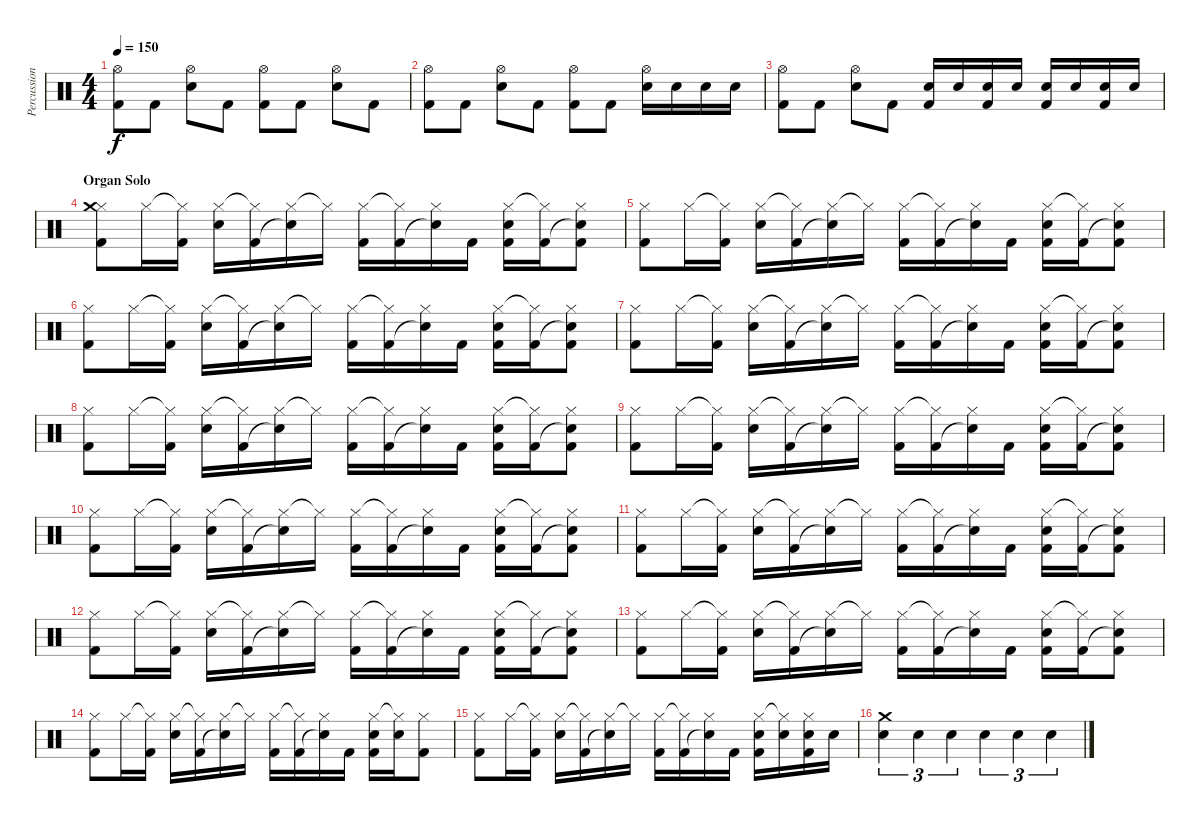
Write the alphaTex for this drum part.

\track ("Percussion" "Percussion") {instrument percussion}
\staff {score}
\articulation defaults
\ts (4 4)
\tempo 150
\clef neutral
\ks c
("Kick (hit) 2" "Hi-Hat (open)").8{dy f} "Kick (hit) 2".8 ("Electric Snare (hit)" "Hi-Hat (open)").8 "Kick (hit) 2".8 ("Kick (hit) 2" "Hi-Hat (open)").8 "Kick (hit) 2".8 ("Electric Snare (hit)" "Hi-Hat (open)").8 "Kick (hit) 2".8 |
("Kick (hit) 2" "Hi-Hat (open)").8 "Kick (hit) 2".8 ("Electric Snare (hit)" "Hi-Hat (open)").8 "Kick (hit) 2".8 ("Kick (hit) 2" "Hi-Hat (open)").8 "Kick (hit) 2".8 ("Electric Snare (hit)" "Hi-Hat (open)").16 "Electric Snare (hit)".16 "Electric Snare (hit)".16 "Electric Snare (hit)".16 |
("Kick (hit) 2" "Hi-Hat (open)").8 "Kick (hit) 2".8 ("Electric Snare (hit)" "Hi-Hat (open)").8 "Kick (hit) 2".8 ("Kick (hit) 2" "Electric Snare (hit)").16 "Electric Snare (hit)".16 ("Kick (hit) 2" "Electric Snare (hit)").16 "Electric Snare (hit)".16 ("Kick (hit) 2" "Electric Snare (hit)").16 "Electric Snare (hit)".16 ("Kick (hit) 2" "Electric Snare (hit)").16 "Electric Snare (hit)".16 |
\section ("" "Organ Solo")
("Hi-Hat (closed)" "Crash medium (hit)" "Kick (hit) 2").8 "Hi-Hat (closed)".16 ("Hi-Hat (closed)"{t} "Kick (hit) 2").16 ("Hi-Hat (closed)" "Electric Snare (hit)").16 ("Hi-Hat (closed)"{t} "Kick (hit) 2").16 ("Hi-Hat (closed)" "Snare (hit)"{t}).16 "Hi-Hat (closed)"{t}.16 ("Hi-Hat (closed)" "Kick (hit) 2").16 ("Hi-Hat (closed)"{t} "Kick (hit) 2").16 ("Hi-Hat (closed)" "Snare (hit) 2"{t}).16 "Kick (hit) 2".16 ("Hi-Hat (closed)" "Electric Snare (hit)" "Kick (hit) 2").16 ("Hi-Hat (closed)"{t} "Kick (hit) 2").16 ("Hi-Hat (closed)" "Snare (hit) 2"{t} "Kick (hit) 2").8 |
("Hi-Hat (closed)" "Kick (hit) 2").8 "Hi-Hat (closed)".16 ("Hi-Hat (closed)"{t} "Kick (hit) 2").16 ("Hi-Hat (closed)" "Electric Snare (hit)").16 ("Hi-Hat (closed)"{t} "Kick (hit) 2").16 ("Hi-Hat (closed)" "Snare (hit)"{t}).16 "Hi-Hat (closed)"{t}.16 ("Hi-Hat (closed)" "Kick (hit) 2").16 ("Hi-Hat (closed)"{t} "Kick (hit) 2").16 ("Hi-Hat (closed)" "Snare (hit) 2"{t}).16 "Kick (hit) 2".16 ("Hi-Hat (closed)" "Electric Snare (hit)" "Kick (hit) 2").16 ("Hi-Hat (closed)"{t} "Kick (hit) 2").16 ("Hi-Hat (closed)" "Snare (hit) 2"{t} "Kick (hit) 2").8 |
("Hi-Hat (closed)" "Kick (hit) 2").8 "Hi-Hat (closed)".16 ("Hi-Hat (closed)"{t} "Kick (hit) 2").16 ("Hi-Hat (closed)" "Electric Snare (hit)").16 ("Hi-Hat (closed)"{t} "Kick (hit) 2").16 ("Hi-Hat (closed)" "Snare (hit)"{t}).16 "Hi-Hat (closed)"{t}.16 ("Hi-Hat (closed)" "Kick (hit) 2").16 ("Hi-Hat (closed)"{t} "Kick (hit) 2").16 ("Hi-Hat (closed)" "Snare (hit) 2"{t}).16 "Kick (hit) 2".16 ("Hi-Hat (closed)" "Electric Snare (hit)" "Kick (hit) 2").16 ("Hi-Hat (closed)"{t} "Kick (hit) 2").16 ("Hi-Hat (closed)" "Snare (hit) 2"{t} "Kick (hit) 2").8 |
("Hi-Hat (closed)" "Kick (hit) 2").8 "Hi-Hat (closed)".16 ("Hi-Hat (closed)"{t} "Kick (hit) 2").16 ("Hi-Hat (closed)" "Electric Snare (hit)").16 ("Hi-Hat (closed)"{t} "Kick (hit) 2").16 ("Hi-Hat (closed)" "Snare (hit)"{t}).16 "Hi-Hat (closed)"{t}.16 ("Hi-Hat (closed)" "Kick (hit) 2").16 ("Hi-Hat (closed)"{t} "Kick (hit) 2").16 ("Hi-Hat (closed)" "Snare (hit) 2"{t}).16 "Kick (hit) 2".16 ("Hi-Hat (closed)" "Electric Snare (hit)" "Kick (hit) 2").16 ("Hi-Hat (closed)"{t} "Kick (hit) 2").16 ("Hi-Hat (closed)" "Snare (hit) 2"{t} "Kick (hit) 2").8 |
("Hi-Hat (closed)" "Kick (hit) 2").8 "Hi-Hat (closed)".16 ("Hi-Hat (closed)"{t} "Kick (hit) 2").16 ("Hi-Hat (closed)" "Electric Snare (hit)").16 ("Hi-Hat (closed)"{t} "Kick (hit) 2").16 ("Hi-Hat (closed)" "Snare (hit)"{t}).16 "Hi-Hat (closed)"{t}.16 ("Hi-Hat (closed)" "Kick (hit) 2").16 ("Hi-Hat (closed)"{t} "Kick (hit) 2").16 ("Hi-Hat (closed)" "Snare (hit) 2"{t}).16 "Kick (hit) 2".16 ("Hi-Hat (closed)" "Electric Snare (hit)" "Kick (hit) 2").16 ("Hi-Hat (closed)"{t} "Kick (hit) 2").16 ("Hi-Hat (closed)" "Snare (hit) 2"{t} "Kick (hit) 2").8 |
("Hi-Hat (closed)" "Kick (hit) 2").8 "Hi-Hat (closed)".16 ("Hi-Hat (closed)"{t} "Kick (hit) 2").16 ("Hi-Hat (closed)" "Electric Snare (hit)").16 ("Hi-Hat (closed)"{t} "Kick (hit) 2").16 ("Hi-Hat (closed)" "Snare (hit)"{t}).16 "Hi-Hat (closed)"{t}.16 ("Hi-Hat (closed)" "Kick (hit) 2").16 ("Hi-Hat (closed)"{t} "Kick (hit) 2").16 ("Hi-Hat (closed)" "Snare (hit) 2"{t}).16 "Kick (hit) 2".16 ("Hi-Hat (closed)" "Electric Snare (hit)" "Kick (hit) 2").16 ("Hi-Hat (closed)"{t} "Kick (hit) 2").16 ("Hi-Hat (closed)" "Snare (hit) 2"{t} "Kick (hit) 2").8 |
("Hi-Hat (closed)" "Kick (hit) 2").8 "Hi-Hat (closed)".16 ("Hi-Hat (closed)"{t} "Kick (hit) 2").16 ("Hi-Hat (closed)" "Electric Snare (hit)").16 ("Hi-Hat (closed)"{t} "Kick (hit) 2").16 ("Hi-Hat (closed)" "Snare (hit)"{t}).16 "Hi-Hat (closed)"{t}.16 ("Hi-Hat (closed)" "Kick (hit) 2").16 ("Hi-Hat (closed)"{t} "Kick (hit) 2").16 ("Hi-Hat (closed)" "Snare (hit) 2"{t}).16 "Kick (hit) 2".16 ("Hi-Hat (closed)" "Electric Snare (hit)" "Kick (hit) 2").16 ("Hi-Hat (closed)"{t} "Kick (hit) 2").16 ("Hi-Hat (closed)" "Snare (hit) 2"{t} "Kick (hit) 2").8 |
("Hi-Hat (closed)" "Kick (hit) 2").8 "Hi-Hat (closed)".16 ("Hi-Hat (closed)"{t} "Kick (hit) 2").16 ("Hi-Hat (closed)" "Electric Snare (hit)").16 ("Hi-Hat (closed)"{t} "Kick (hit) 2").16 ("Hi-Hat (closed)" "Snare (hit)"{t}).16 "Hi-Hat (closed)"{t}.16 ("Hi-Hat (closed)" "Kick (hit) 2").16 ("Hi-Hat (closed)"{t} "Kick (hit) 2").16 ("Hi-Hat (closed)" "Snare (hit) 2"{t}).16 "Kick (hit) 2".16 ("Hi-Hat (closed)" "Electric Snare (hit)" "Kick (hit) 2").16 ("Hi-Hat (closed)"{t} "Kick (hit) 2").16 ("Hi-Hat (closed)" "Snare (hit) 2"{t} "Kick (hit) 2").8 |
("Hi-Hat (closed)" "Kick (hit) 2").8 "Hi-Hat (closed)".16 ("Hi-Hat (closed)"{t} "Kick (hit) 2").16 ("Hi-Hat (closed)" "Electric Snare (hit)").16 ("Hi-Hat (closed)"{t} "Kick (hit) 2").16 ("Hi-Hat (closed)" "Snare (hit)"{t}).16 "Hi-Hat (closed)"{t}.16 ("Hi-Hat (closed)" "Kick (hit) 2").16 ("Hi-Hat (closed)"{t} "Kick (hit) 2").16 ("Hi-Hat (closed)" "Snare (hit) 2"{t}).16 "Kick (hit) 2".16 ("Hi-Hat (closed)" "Electric Snare (hit)" "Kick (hit) 2").16 ("Hi-Hat (closed)"{t} "Kick (hit) 2").16 ("Hi-Hat (closed)" "Snare (hit) 2"{t} "Kick (hit) 2").8 |
("Hi-Hat (closed)" "Kick (hit) 2").8 "Hi-Hat (closed)".16 ("Hi-Hat (closed)"{t} "Kick (hit) 2").16 ("Hi-Hat (closed)" "Electric Snare (hit)").16 ("Hi-Hat (closed)"{t} "Kick (hit) 2").16 ("Hi-Hat (closed)" "Snare (hit)"{t}).16 "Hi-Hat (closed)"{t}.16 ("Hi-Hat (closed)" "Kick (hit) 2").16 ("Hi-Hat (closed)"{t} "Kick (hit) 2").16 ("Hi-Hat (closed)" "Snare (hit) 2"{t}).16 "Kick (hit) 2".16 ("Hi-Hat (closed)" "Electric Snare (hit)" "Kick (hit) 2").16 ("Hi-Hat (closed)"{t} "Kick (hit) 2").16 ("Hi-Hat (closed)" "Snare (hit) 2"{t} "Kick (hit) 2").8 |
("Hi-Hat (closed)" "Kick (hit) 2").8 "Hi-Hat (closed)".16 ("Hi-Hat (closed)"{t} "Kick (hit) 2").16 ("Hi-Hat (closed)" "Electric Snare (hit)").16 ("Hi-Hat (closed)"{t} "Kick (hit) 2").16 ("Hi-Hat (closed)" "Snare (hit)"{t}).16 "Hi-Hat (closed)"{t}.16 ("Hi-Hat (closed)" "Kick (hit) 2").16 ("Hi-Hat (closed)"{t} "Kick (hit) 2").16 ("Hi-Hat (closed)" "Snare (hit) 2"{t}).16 "Kick (hit) 2".16 ("Hi-Hat (closed)" "Electric Snare (hit)" "Kick (hit) 2").16 ("Hi-Hat (closed)"{t} "Electric Snare (hit)").16 ("Hi-Hat (closed)" "Kick (hit) 2").8 |
("Hi-Hat (closed)" "Kick (hit) 2").8 "Hi-Hat (closed)".16 ("Hi-Hat (closed)"{t} "Kick (hit) 2").16 ("Hi-Hat (closed)" "Electric Snare (hit)").16 ("Hi-Hat (closed)"{t} "Kick (hit) 2").16 ("Hi-Hat (closed)" "Snare (hit)"{t}).16 "Hi-Hat (closed)"{t}.16 ("Hi-Hat (closed)" "Kick (hit) 2").16 ("Hi-Hat (closed)"{t} "Kick (hit) 2").16 ("Hi-Hat (closed)" "Snare (hit) 2"{t}).16 "Kick (hit) 2".16 ("Hi-Hat (closed)" "Electric Snare (hit)" "Kick (hit) 2").16 ("Hi-Hat (closed)"{t} "Electric Snare (hit)").16 ("Hi-Hat (closed)" "Electric Snare (hit)" "Kick (hit) 2").16 "Electric Snare (hit)".16 |
("Electric Snare (hit)" "Crash medium (hit)").4{tu (3 2)} "Electric Snare (hit)".4{tu (3 2)} "Electric Snare (hit)".4{tu (3 2)} "Electric Snare (hit)".4{tu (3 2)} "Electric Snare (hit)".4{tu (3 2)} "Electric Snare (hit)".4{tu (3 2)}
